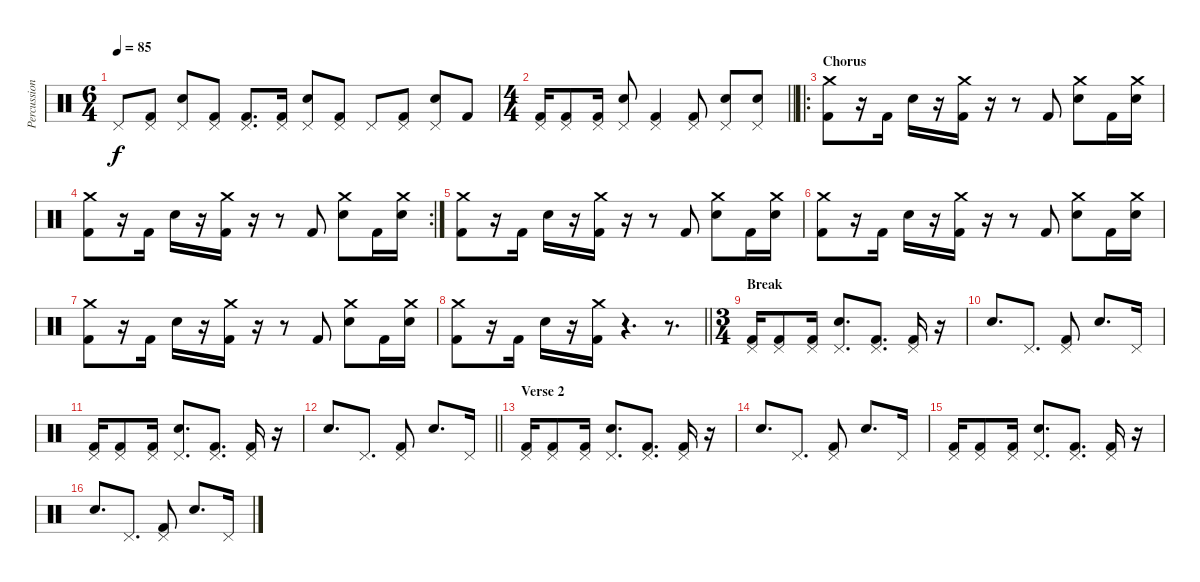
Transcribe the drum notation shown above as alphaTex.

\track ("Percussion (N. Sanderson)" "Percussion") {instrument percussion}
\staff {score}
\articulation defaults
\ts (6 4)
\tempo 85
\clef neutral
\ks c "Pedal Hi-Hat (hit)".8{dy f}
("Pedal Hi-Hat (hit)" "Kick (hit) 2").8 ("Pedal Hi-Hat (hit)" "Electric Snare (hit)").8 ("Pedal Hi-Hat (hit)" "Kick (hit) 2").8 ("Pedal Hi-Hat (hit)" "Kick (hit) 2").8{d} ("Pedal Hi-Hat (hit)" "Kick (hit) 2").16 ("Pedal Hi-Hat (hit)" "Electric Snare (hit)").8 ("Pedal Hi-Hat (hit)" "Kick (hit) 2").8 "Pedal Hi-Hat (hit)".8 ("Pedal Hi-Hat (hit)" "Kick (hit) 2").8 ("Pedal Hi-Hat (hit)" "Electric Snare (hit)").8 "Kick (hit) 2".8 |
\ts (4 4)
\barLineRight lightlight
("Pedal Hi-Hat (hit)" "Kick (hit) 2").16 ("Pedal Hi-Hat (hit)" "Kick (hit) 2").8 ("Pedal Hi-Hat (hit)" "Kick (hit) 2").16 ("Pedal Hi-Hat (hit)" "Electric Snare (hit)").8 ("Pedal Hi-Hat (hit)" "Kick (hit) 2").4 ("Pedal Hi-Hat (hit)" "Kick (hit) 2").8 ("Pedal Hi-Hat (hit)" "Electric Snare (hit)").8 ("Pedal Hi-Hat (hit)" "Electric Snare (hit)").8 |
\ro
\section ("" "Chorus")
("Crash medium (hit)" "Kick (hit) 2").8 r.16 "Kick (hit) 2".16 "Electric Snare (hit)".16 r.16 ("Crash medium (hit)" "Kick (hit) 2").16 r.16 r.8 "Kick (hit) 2".8 ("Crash medium (hit)" "Electric Snare (hit)").8 "Kick (hit) 2".16 ("Crash medium (hit)" "Electric Snare (hit)").16 |
\rc 2
("Crash medium (hit)" "Kick (hit) 2").8 r.16 "Kick (hit) 2".16 "Electric Snare (hit)".16 r.16 ("Crash medium (hit)" "Kick (hit) 2").16 r.16 r.8 "Kick (hit) 2".8 ("Crash medium (hit)" "Electric Snare (hit)").8 "Kick (hit) 2".16 ("Crash medium (hit)" "Electric Snare (hit)").16 |
("Crash medium (hit)" "Kick (hit) 2").8 r.16 "Kick (hit) 2".16 "Electric Snare (hit)".16 r.16 ("Crash medium (hit)" "Kick (hit) 2").16 r.16 r.8 "Kick (hit) 2".8 ("Crash medium (hit)" "Electric Snare (hit)").8 "Kick (hit) 2".16 ("Crash medium (hit)" "Electric Snare (hit)").16 |
("Crash medium (hit)" "Kick (hit) 2").8 r.16 "Kick (hit) 2".16 "Electric Snare (hit)".16 r.16 ("Crash medium (hit)" "Kick (hit) 2").16 r.16 r.8 "Kick (hit) 2".8 ("Crash medium (hit)" "Electric Snare (hit)").8 "Kick (hit) 2".16 ("Crash medium (hit)" "Electric Snare (hit)").16 |
("Crash medium (hit)" "Kick (hit) 2").8 r.16 "Kick (hit) 2".16 "Electric Snare (hit)".16 r.16 ("Crash medium (hit)" "Kick (hit) 2").16 r.16 r.8 "Kick (hit) 2".8 ("Crash medium (hit)" "Electric Snare (hit)").8 "Kick (hit) 2".16 ("Crash medium (hit)" "Electric Snare (hit)").16 |
\barLineRight lightlight
("Crash medium (hit)" "Kick (hit) 2").8 r.16 "Kick (hit) 2".16 "Electric Snare (hit)".16 r.16 ("Crash medium (hit)" "Kick (hit) 2").16 r.4{d} r.8{d} |
\ts (3 4)
\section ("" "Break")
("Pedal Hi-Hat (hit)" "Kick (hit) 2").16 ("Pedal Hi-Hat (hit)" "Kick (hit) 2").8 ("Pedal Hi-Hat (hit)" "Kick (hit) 2").16 ("Pedal Hi-Hat (hit)" "Electric Snare (hit)").8{d} ("Pedal Hi-Hat (hit)" "Kick (hit) 2").8{d} ("Pedal Hi-Hat (hit)" "Kick (hit) 2").16 r.16 |
"Electric Snare (hit)".8{d} "Pedal Hi-Hat (hit)".8{d} ("Pedal Hi-Hat (hit)" "Kick (hit) 2").8 "Electric Snare (hit)".8{d} "Pedal Hi-Hat (hit)".16 |
("Pedal Hi-Hat (hit)" "Kick (hit) 2").16 ("Pedal Hi-Hat (hit)" "Kick (hit) 2").8 ("Pedal Hi-Hat (hit)" "Kick (hit) 2").16 ("Pedal Hi-Hat (hit)" "Electric Snare (hit)").8{d} ("Pedal Hi-Hat (hit)" "Kick (hit) 2").8{d} ("Pedal Hi-Hat (hit)" "Kick (hit) 2").16 r.16 |
\barLineRight lightlight "Electric Snare (hit)".8{d} "Pedal Hi-Hat (hit)".8{d}
("Pedal Hi-Hat (hit)" "Kick (hit) 2").8 "Electric Snare (hit)".8{d} "Pedal Hi-Hat (hit)".16 |
\section ("" "Verse 2")
("Pedal Hi-Hat (hit)" "Kick (hit) 2").16 ("Pedal Hi-Hat (hit)" "Kick (hit) 2").8 ("Pedal Hi-Hat (hit)" "Kick (hit) 2").16 ("Pedal Hi-Hat (hit)" "Electric Snare (hit)").8{d} ("Pedal Hi-Hat (hit)" "Kick (hit) 2").8{d} ("Pedal Hi-Hat (hit)" "Kick (hit) 2").16 r.16 |
"Electric Snare (hit)".8{d} "Pedal Hi-Hat (hit)".8{d} ("Pedal Hi-Hat (hit)" "Kick (hit) 2").8 "Electric Snare (hit)".8{d} "Pedal Hi-Hat (hit)".16 |
("Pedal Hi-Hat (hit)" "Kick (hit) 2").16 ("Pedal Hi-Hat (hit)" "Kick (hit) 2").8 ("Pedal Hi-Hat (hit)" "Kick (hit) 2").16 ("Pedal Hi-Hat (hit)" "Electric Snare (hit)").8{d} ("Pedal Hi-Hat (hit)" "Kick (hit) 2").8{d} ("Pedal Hi-Hat (hit)" "Kick (hit) 2").16 r.16 |
"Electric Snare (hit)".8{d} "Pedal Hi-Hat (hit)".8{d} ("Pedal Hi-Hat (hit)" "Kick (hit) 2").8 "Electric Snare (hit)".8{d} "Pedal Hi-Hat (hit)".16
